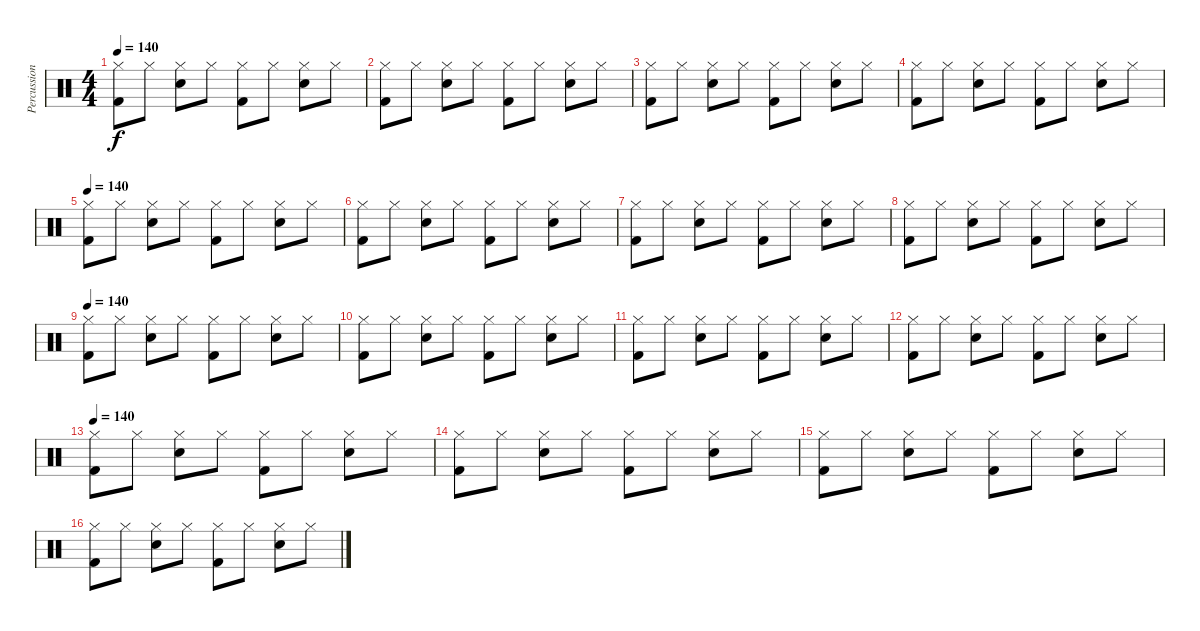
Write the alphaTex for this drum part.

\track ("Percussion" "Percussion") {instrument percussion}
\staff {score}
\articulation defaults
\ts (4 4)
\tempo 140
\clef neutral
\ks c
("Hi-Hat (closed)" "Kick (hit) 2").8{dy f} "Hi-Hat (closed)".8 ("Hi-Hat (closed)" "Snare (hit) 2").8 "Hi-Hat (closed)".8 ("Hi-Hat (closed)" "Kick (hit) 2").8 "Hi-Hat (closed)".8 ("Hi-Hat (closed)" "Snare (hit) 2").8 "Hi-Hat (closed)".8 |
("Hi-Hat (closed)" "Kick (hit) 2").8 "Hi-Hat (closed)".8 ("Hi-Hat (closed)" "Snare (hit) 2").8 "Hi-Hat (closed)".8 ("Hi-Hat (closed)" "Kick (hit) 2").8 "Hi-Hat (closed)".8 ("Hi-Hat (closed)" "Snare (hit) 2").8 "Hi-Hat (closed)".8 |
("Hi-Hat (closed)" "Kick (hit) 2").8 "Hi-Hat (closed)".8 ("Hi-Hat (closed)" "Snare (hit) 2").8 "Hi-Hat (closed)".8 ("Hi-Hat (closed)" "Kick (hit) 2").8 "Hi-Hat (closed)".8 ("Hi-Hat (closed)" "Snare (hit) 2").8 "Hi-Hat (closed)".8 |
("Hi-Hat (closed)" "Kick (hit) 2").8 "Hi-Hat (closed)".8 ("Hi-Hat (closed)" "Snare (hit) 2").8 "Hi-Hat (closed)".8 ("Hi-Hat (closed)" "Kick (hit) 2").8 "Hi-Hat (closed)".8 ("Hi-Hat (closed)" "Snare (hit) 2").8 "Hi-Hat (closed)".8 |
\tempo 140
("Hi-Hat (closed)" "Kick (hit) 2").8 "Hi-Hat (closed)".8 ("Hi-Hat (closed)" "Snare (hit) 2").8 "Hi-Hat (closed)".8 ("Hi-Hat (closed)" "Kick (hit) 2").8 "Hi-Hat (closed)".8 ("Hi-Hat (closed)" "Snare (hit) 2").8 "Hi-Hat (closed)".8 |
("Hi-Hat (closed)" "Kick (hit) 2").8 "Hi-Hat (closed)".8 ("Hi-Hat (closed)" "Snare (hit) 2").8 "Hi-Hat (closed)".8 ("Hi-Hat (closed)" "Kick (hit) 2").8 "Hi-Hat (closed)".8 ("Hi-Hat (closed)" "Snare (hit) 2").8 "Hi-Hat (closed)".8 |
("Hi-Hat (closed)" "Kick (hit) 2").8 "Hi-Hat (closed)".8 ("Hi-Hat (closed)" "Snare (hit) 2").8 "Hi-Hat (closed)".8 ("Hi-Hat (closed)" "Kick (hit) 2").8 "Hi-Hat (closed)".8 ("Hi-Hat (closed)" "Snare (hit) 2").8 "Hi-Hat (closed)".8 |
("Hi-Hat (closed)" "Kick (hit) 2").8 "Hi-Hat (closed)".8 ("Hi-Hat (closed)" "Snare (hit) 2").8 "Hi-Hat (closed)".8 ("Hi-Hat (closed)" "Kick (hit) 2").8 "Hi-Hat (closed)".8 ("Hi-Hat (closed)" "Snare (hit) 2").8 "Hi-Hat (closed)".8 |
\tempo 140
("Hi-Hat (closed)" "Kick (hit) 2").8 "Hi-Hat (closed)".8 ("Hi-Hat (closed)" "Snare (hit) 2").8 "Hi-Hat (closed)".8 ("Hi-Hat (closed)" "Kick (hit) 2").8 "Hi-Hat (closed)".8 ("Hi-Hat (closed)" "Snare (hit) 2").8 "Hi-Hat (closed)".8 |
("Hi-Hat (closed)" "Kick (hit) 2").8 "Hi-Hat (closed)".8 ("Hi-Hat (closed)" "Snare (hit) 2").8 "Hi-Hat (closed)".8 ("Hi-Hat (closed)" "Kick (hit) 2").8 "Hi-Hat (closed)".8 ("Hi-Hat (closed)" "Snare (hit) 2").8 "Hi-Hat (closed)".8 |
("Hi-Hat (closed)" "Kick (hit) 2").8 "Hi-Hat (closed)".8 ("Hi-Hat (closed)" "Snare (hit) 2").8 "Hi-Hat (closed)".8 ("Hi-Hat (closed)" "Kick (hit) 2").8 "Hi-Hat (closed)".8 ("Hi-Hat (closed)" "Snare (hit) 2").8 "Hi-Hat (closed)".8 |
("Hi-Hat (closed)" "Kick (hit) 2").8 "Hi-Hat (closed)".8 ("Hi-Hat (closed)" "Snare (hit) 2").8 "Hi-Hat (closed)".8 ("Hi-Hat (closed)" "Kick (hit) 2").8 "Hi-Hat (closed)".8 ("Hi-Hat (closed)" "Snare (hit) 2").8 "Hi-Hat (closed)".8 |
\tempo 140
("Hi-Hat (closed)" "Kick (hit) 2").8 "Hi-Hat (closed)".8 ("Hi-Hat (closed)" "Snare (hit) 2").8 "Hi-Hat (closed)".8 ("Hi-Hat (closed)" "Kick (hit) 2").8 "Hi-Hat (closed)".8 ("Hi-Hat (closed)" "Snare (hit) 2").8 "Hi-Hat (closed)".8 |
("Hi-Hat (closed)" "Kick (hit) 2").8 "Hi-Hat (closed)".8 ("Hi-Hat (closed)" "Snare (hit) 2").8 "Hi-Hat (closed)".8 ("Hi-Hat (closed)" "Kick (hit) 2").8 "Hi-Hat (closed)".8 ("Hi-Hat (closed)" "Snare (hit) 2").8 "Hi-Hat (closed)".8 |
("Hi-Hat (closed)" "Kick (hit) 2").8 "Hi-Hat (closed)".8 ("Hi-Hat (closed)" "Snare (hit) 2").8 "Hi-Hat (closed)".8 ("Hi-Hat (closed)" "Kick (hit) 2").8 "Hi-Hat (closed)".8 ("Hi-Hat (closed)" "Snare (hit) 2").8 "Hi-Hat (closed)".8 |
("Hi-Hat (closed)" "Kick (hit) 2").8 "Hi-Hat (closed)".8 ("Hi-Hat (closed)" "Snare (hit) 2").8 "Hi-Hat (closed)".8 ("Hi-Hat (closed)" "Kick (hit) 2").8 "Hi-Hat (closed)".8 ("Hi-Hat (closed)" "Snare (hit) 2").8 "Hi-Hat (closed)".8
